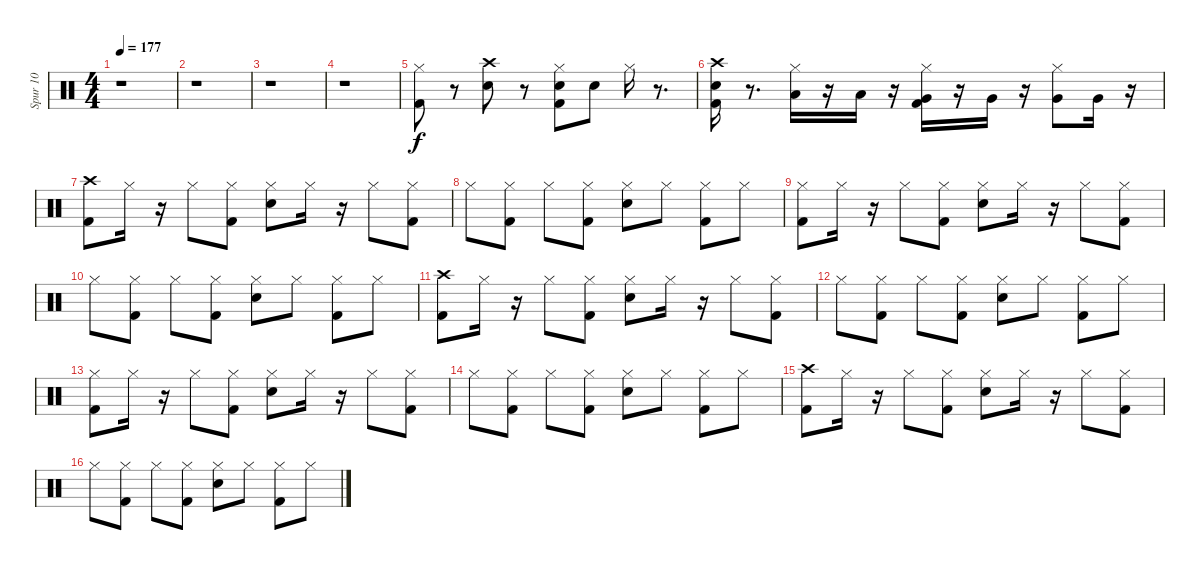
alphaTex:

\track ("Spur 10" "Spur 10") {instrument percussion}
\staff {score}
\articulation defaults
\ts (4 4)
\tempo 177
\clef neutral
\ks c
r.1{dy f} |
r.1 |
r.1 |
r.1 |
("Hi-Hat (closed)" "Kick (hit) 2").8 r.8 ("Electric Snare (hit)" "Crash high (hit)").8 r.8 ("Kick (hit) 2" "Electric Snare (hit)" "Hi-Hat (closed)").8 "Electric Snare (hit)".8 "Hi-Hat (closed)".16 r.8{d} |
("Kick (hit) 2" "Electric Snare (hit)" "Crash high (hit)").16 r.8{d} ("Low Tom (hit)" "Hi-Hat (closed)").16 r.16 "Low Tom (hit)".16 r.16 ("Kick (hit) 2" "Very Low Tom (hit)" "Hi-Hat (closed)").16 r.16 "Very Low Tom (hit)".16 r.16 ("Very Low Tom (hit)" "Hi-Hat (closed)").8 "Very Low Tom (hit)".16 r.16 |
("Crash high (hit)" "Kick (hit) 2").8 "Hi-Hat (closed)".16 r.16 "Hi-Hat (closed)".8 ("Kick (hit) 2" "Hi-Hat (closed)").8 ("Hi-Hat (closed)" "Electric Snare (hit)").8 "Hi-Hat (closed)".16 r.16 "Hi-Hat (closed)".8 ("Kick (hit) 2" "Hi-Hat (closed)").8 |
"Hi-Hat (closed)".8 ("Kick (hit) 2" "Hi-Hat (closed)").8 "Hi-Hat (closed)".8 ("Hi-Hat (closed)" "Kick (hit) 2").8 ("Hi-Hat (closed)" "Electric Snare (hit)").8 "Hi-Hat (closed)".8 ("Kick (hit) 2" "Hi-Hat (closed)").8 "Hi-Hat (closed)".8 |
("Kick (hit) 2" "Hi-Hat (closed)").8 "Hi-Hat (closed)".16 r.16 "Hi-Hat (closed)".8 ("Hi-Hat (closed)" "Kick (hit) 2").8 ("Electric Snare (hit)" "Hi-Hat (closed)").8 "Hi-Hat (closed)".16 r.16 "Hi-Hat (closed)".8 ("Kick (hit) 2" "Hi-Hat (closed)").8 |
"Hi-Hat (closed)".8 ("Kick (hit) 2" "Hi-Hat (closed)").8 "Hi-Hat (closed)".8 ("Hi-Hat (closed)" "Kick (hit) 2").8 ("Hi-Hat (closed)" "Electric Snare (hit)").8 "Hi-Hat (closed)".8 ("Kick (hit) 2" "Hi-Hat (closed)").8 "Hi-Hat (closed)".8 |
("Crash high (hit)" "Kick (hit) 2").8 "Hi-Hat (closed)".16 r.16 "Hi-Hat (closed)".8 ("Kick (hit) 2" "Hi-Hat (closed)").8 ("Hi-Hat (closed)" "Electric Snare (hit)").8 "Hi-Hat (closed)".16 r.16 "Hi-Hat (closed)".8 ("Kick (hit) 2" "Hi-Hat (closed)").8 |
"Hi-Hat (closed)".8 ("Kick (hit) 2" "Hi-Hat (closed)").8 "Hi-Hat (closed)".8 ("Hi-Hat (closed)" "Kick (hit) 2").8 ("Hi-Hat (closed)" "Electric Snare (hit)").8 "Hi-Hat (closed)".8 ("Kick (hit) 2" "Hi-Hat (closed)").8 "Hi-Hat (closed)".8 |
("Kick (hit) 2" "Hi-Hat (closed)").8 "Hi-Hat (closed)".16 r.16 "Hi-Hat (closed)".8 ("Hi-Hat (closed)" "Kick (hit) 2").8 ("Electric Snare (hit)" "Hi-Hat (closed)").8 "Hi-Hat (closed)".16 r.16 "Hi-Hat (closed)".8 ("Kick (hit) 2" "Hi-Hat (closed)").8 |
"Hi-Hat (closed)".8 ("Kick (hit) 2" "Hi-Hat (closed)").8 "Hi-Hat (closed)".8 ("Hi-Hat (closed)" "Kick (hit) 2").8 ("Hi-Hat (closed)" "Electric Snare (hit)").8 "Hi-Hat (closed)".8 ("Kick (hit) 2" "Hi-Hat (closed)").8 "Hi-Hat (closed)".8 |
("Crash high (hit)" "Kick (hit) 2").8 "Hi-Hat (closed)".16 r.16 "Hi-Hat (closed)".8 ("Kick (hit) 2" "Hi-Hat (closed)").8 ("Hi-Hat (closed)" "Electric Snare (hit)").8 "Hi-Hat (closed)".16 r.16 "Hi-Hat (closed)".8 ("Kick (hit) 2" "Hi-Hat (closed)").8 |
"Hi-Hat (closed)".8 ("Kick (hit) 2" "Hi-Hat (closed)").8 "Hi-Hat (closed)".8 ("Hi-Hat (closed)" "Kick (hit) 2").8 ("Hi-Hat (closed)" "Electric Snare (hit)").8 "Hi-Hat (closed)".8 ("Kick (hit) 2" "Hi-Hat (closed)").8 "Hi-Hat (closed)".8
